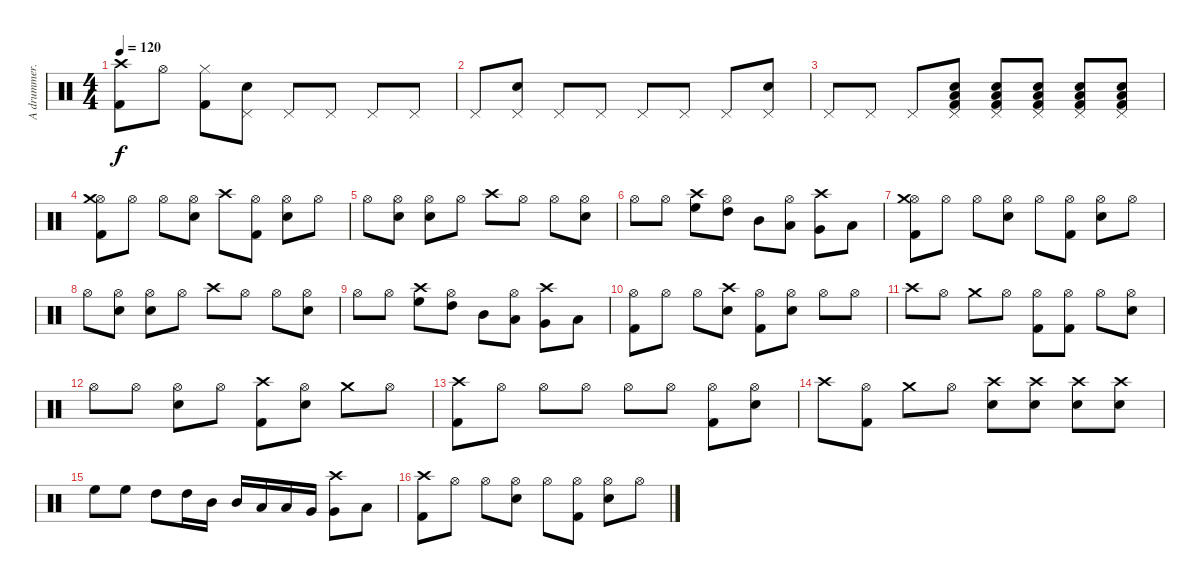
\track ("A drummer...." "A drummer.") {instrument percussion}
\staff {score}
\articulation defaults
\ts (4 4)
\tempo 120
\clef neutral
\ks c
("Crash high (hit)" "Kick (hit) 2").8{dy f} "Hi-Hat (open)".8 ("Hi-Hat (closed)" "Kick (hit) 2").8 ("Pedal Hi-Hat (hit)" "Snare (hit) 2").8 "Pedal Hi-Hat (hit)".8 "Pedal Hi-Hat (hit)".8 "Pedal Hi-Hat (hit)".8 "Pedal Hi-Hat (hit)".8 |
"Pedal Hi-Hat (hit)".8 ("Pedal Hi-Hat (hit)" "Snare (hit) 2").8 "Pedal Hi-Hat (hit)".8 "Pedal Hi-Hat (hit)".8 "Pedal Hi-Hat (hit)".8 "Pedal Hi-Hat (hit)".8 "Pedal Hi-Hat (hit)".8 ("Pedal Hi-Hat (hit)" "Snare (hit) 2").8 |
"Pedal Hi-Hat (hit)".8 "Pedal Hi-Hat (hit)".8 "Pedal Hi-Hat (hit)".8 ("Pedal Hi-Hat (hit)" "Low Tom (hit)" "Snare (hit) 2" "Kick (hit) 2").8 ("Pedal Hi-Hat (hit)" "Low Tom (hit)" "Snare (hit) 2" "Kick (hit) 2").8 ("Pedal Hi-Hat (hit)" "Low Tom (hit)" "Snare (hit) 2" "Kick (hit) 2").8 ("Pedal Hi-Hat (hit)" "Low Tom (hit)" "Snare (hit) 2" "Kick (hit) 2").8 ("Pedal Hi-Hat (hit)" "Low Tom (hit)" "Snare (hit) 2" "Kick (hit) 2").8 |
("Hi-Hat (open)" "Crash medium (hit)" "Kick (hit) 2").8 "Hi-Hat (open)".8 "Hi-Hat (open)".8 ("Hi-Hat (open)" "Snare (hit) 2").8 "Crash high (hit)".8 ("Hi-Hat (open)" "Kick (hit) 2").8 ("Hi-Hat (open)" "Snare (hit) 2").8 "Hi-Hat (open)".8 |
"Hi-Hat (open)".8 ("Hi-Hat (open)" "Snare (hit) 2").8 ("Hi-Hat (open)" "Snare (hit) 2").8 "Hi-Hat (open)".8 "Crash high (hit)".8 "Hi-Hat (open)".8 "Hi-Hat (open)".8 ("Hi-Hat (open)" "Snare (hit) 2").8 |
"Hi-Hat (open)".8 "Hi-Hat (open)".8 ("Crash high (hit)" "High Floor Tom (hit)").8 ("Hi-Hat (open)" "High Tom (hit)").8 "Mid Tom (hit)".8 ("Hi-Hat (open)" "Low Tom (hit)").8 ("Crash high (hit)" "Very Low Tom (hit)").8 "Low Floor Tom (hit)".8 |
("Hi-Hat (open)" "Crash medium (hit)" "Kick (hit) 2").8 "Hi-Hat (open)".8 "Hi-Hat (open)".8 ("Hi-Hat (open)" "Snare (hit) 2").8 "Hi-Hat (open)".8 ("Hi-Hat (open)" "Kick (hit) 2").8 ("Hi-Hat (open)" "Snare (hit) 2").8 "Hi-Hat (open)".8 |
"Hi-Hat (open)".8 ("Hi-Hat (open)" "Snare (hit) 2").8 ("Hi-Hat (open)" "Snare (hit) 2").8 "Hi-Hat (open)".8 "Crash high (hit)".8 "Hi-Hat (open)".8 "Hi-Hat (open)".8 ("Hi-Hat (open)" "Snare (hit) 2").8 |
"Hi-Hat (open)".8 "Hi-Hat (open)".8 ("Crash high (hit)" "High Floor Tom (hit)").8 ("Hi-Hat (open)" "High Tom (hit)").8 "Mid Tom (hit)".8 ("Hi-Hat (open)" "Low Tom (hit)").8 ("Crash high (hit)" "Very Low Tom (hit)").8 "Low Floor Tom (hit)".8 |
("Hi-Hat (open)" "Kick (hit) 2").8 "Hi-Hat (open)".8 "Hi-Hat (open)".8 ("Crash high (hit)" "Snare (hit) 2").8 ("Hi-Hat (open)" "Kick (hit) 2").8 ("Hi-Hat (open)" "Snare (hit) 2").8 "Hi-Hat (open)".8 "Hi-Hat (open)".8 |
"Crash high (hit)".8 "Hi-Hat (open)".8 "Crash medium (hit)".8 "Hi-Hat (open)".8 ("Hi-Hat (open)" "Kick (hit) 2").8 ("Hi-Hat (open)" "Kick (hit) 2").8 "Hi-Hat (open)".8 ("Hi-Hat (open)" "Snare (hit) 2").8 |
"Hi-Hat (open)".8 "Hi-Hat (open)".8 ("Hi-Hat (open)" "Snare (hit) 2").8 "Hi-Hat (open)".8 ("Crash high (hit)" "Kick (hit) 2").8 ("Hi-Hat (open)" "Snare (hit) 2").8 "Crash medium (hit)".8 "Hi-Hat (open)".8 |
("Crash high (hit)" "Kick (hit) 2").8 "Hi-Hat (open)".8 "Hi-Hat (open)".8 "Hi-Hat (open)".8 "Hi-Hat (open)".8 "Hi-Hat (open)".8 ("Hi-Hat (open)" "Kick (hit) 2").8 ("Hi-Hat (open)" "Snare (hit) 2").8 |
"Crash high (hit)".8 ("Hi-Hat (open)" "Kick (hit) 2").8 "Crash medium (hit)".8 "Hi-Hat (open)".8 ("Crash high (hit)" "Snare (hit) 2").8 ("Crash high (hit)" "Snare (hit) 2").8 ("Crash high (hit)" "Snare (hit) 2").8 ("Crash high (hit)" "Snare (hit) 2").8 |
"High Floor Tom (hit)".8 "High Floor Tom (hit)".8 "High Tom (hit)".8 "High Tom (hit)".16 "Mid Tom (hit)".16 "Mid Tom (hit)".16 "Low Tom (hit)".16 "Low Tom (hit)".16 "Very Low Tom (hit)".16 ("Crash high (hit)" "Very Low Tom (hit)").8 "Low Floor Tom (hit)".8 |
("Crash high (hit)" "Kick (hit) 2").8 "Hi-Hat (open)".8 "Hi-Hat (open)".8 ("Hi-Hat (open)" "Snare (hit) 2").8 "Hi-Hat (open)".8 ("Hi-Hat (open)" "Kick (hit) 2").8 ("Hi-Hat (open)" "Snare (hit) 2").8 "Hi-Hat (open)".8
